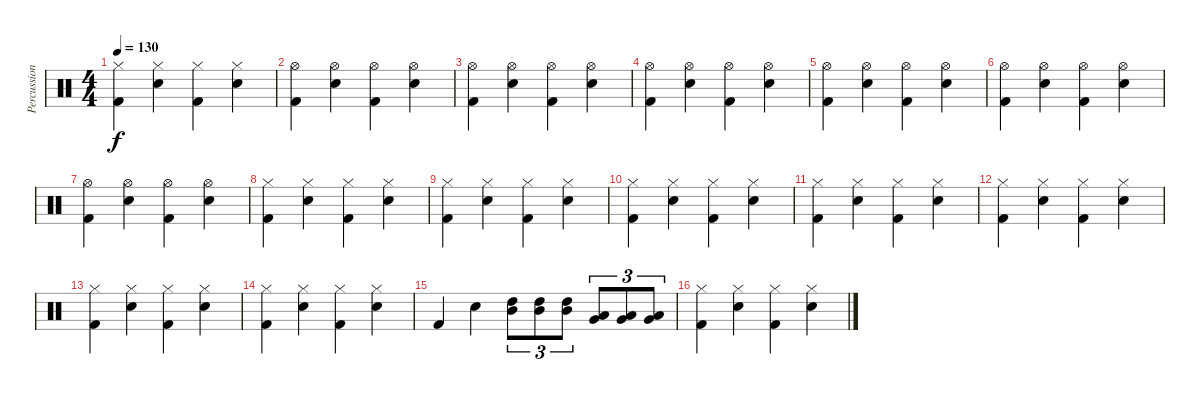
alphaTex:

\track ("Percussion" "Percussion") {instrument percussion bank 177}
\staff {score}
\articulation defaults
\ts (4 4)
\tempo 130
\clef neutral
\ks c
("Hi-Hat (closed)" "Kick (hit) 2").4{dy f} ("Hi-Hat (closed)" "Snare (hit) 2").4 ("Hi-Hat (closed)" "Kick (hit) 2").4 ("Hi-Hat (closed)" "Snare (hit) 2").4 |
("Hi-Hat (open)" "Kick (hit) 2").4 ("Hi-Hat (open)" "Snare (hit) 2").4 ("Hi-Hat (open)" "Kick (hit) 2").4 ("Hi-Hat (open)" "Snare (hit) 2").4 |
("Hi-Hat (open)" "Kick (hit) 2").4 ("Hi-Hat (open)" "Snare (hit) 2").4 ("Hi-Hat (open)" "Kick (hit) 2").4 ("Hi-Hat (open)" "Snare (hit) 2").4 |
("Hi-Hat (open)" "Kick (hit) 2").4 ("Hi-Hat (open)" "Snare (hit) 2").4 ("Hi-Hat (open)" "Kick (hit) 2").4 ("Hi-Hat (open)" "Snare (hit) 2").4 |
("Hi-Hat (open)" "Kick (hit) 2").4 ("Hi-Hat (open)" "Snare (hit) 2").4 ("Hi-Hat (open)" "Kick (hit) 2").4 ("Hi-Hat (open)" "Snare (hit) 2").4 |
("Hi-Hat (open)" "Kick (hit) 2").4 ("Hi-Hat (open)" "Snare (hit) 2").4 ("Hi-Hat (open)" "Kick (hit) 2").4 ("Hi-Hat (open)" "Snare (hit) 2").4 |
("Hi-Hat (open)" "Kick (hit) 2").4 ("Hi-Hat (open)" "Snare (hit) 2").4 ("Hi-Hat (open)" "Kick (hit) 2").4 ("Hi-Hat (open)" "Snare (hit) 2").4 |
("Hi-Hat (closed)" "Kick (hit) 2").4 ("Hi-Hat (closed)" "Snare (hit) 2").4 ("Hi-Hat (closed)" "Kick (hit) 2").4 ("Hi-Hat (closed)" "Snare (hit) 2").4 |
("Hi-Hat (closed)" "Kick (hit) 2").4 ("Hi-Hat (closed)" "Snare (hit) 2").4 ("Hi-Hat (closed)" "Kick (hit) 2").4 ("Hi-Hat (closed)" "Snare (hit) 2").4 |
("Hi-Hat (closed)" "Kick (hit) 2").4 ("Hi-Hat (closed)" "Snare (hit) 2").4 ("Hi-Hat (closed)" "Kick (hit) 2").4 ("Hi-Hat (closed)" "Snare (hit) 2").4 |
("Hi-Hat (closed)" "Kick (hit) 2").4 ("Hi-Hat (closed)" "Snare (hit) 2").4 ("Hi-Hat (closed)" "Kick (hit) 2").4 ("Hi-Hat (closed)" "Snare (hit) 2").4 |
("Hi-Hat (closed)" "Kick (hit) 2").4 ("Hi-Hat (closed)" "Snare (hit) 2").4 ("Hi-Hat (closed)" "Kick (hit) 2").4 ("Hi-Hat (closed)" "Snare (hit) 2").4 |
("Hi-Hat (closed)" "Kick (hit) 2").4 ("Hi-Hat (closed)" "Snare (hit) 2").4 ("Hi-Hat (closed)" "Kick (hit) 2").4 ("Hi-Hat (closed)" "Snare (hit) 2").4 |
("Hi-Hat (closed)" "Kick (hit) 2").4 ("Hi-Hat (closed)" "Snare (hit) 2").4 ("Hi-Hat (closed)" "Kick (hit) 2").4 ("Hi-Hat (closed)" "Snare (hit) 2").4 |
"Kick (hit) 2".4 "Snare (hit) 2".4 ("High Tom (hit)" "Mid Tom (hit)").8{tu (3 2)} ("High Tom (hit)" "Mid Tom (hit)").8{tu (3 2)} ("High Tom (hit)" "Mid Tom (hit)").8{tu (3 2)} ("Low Tom (hit)" "Very Low Tom (hit)").8{tu (3 2)} ("Low Tom (hit)" "Very Low Tom (hit)").8{tu (3 2)} ("Low Tom (hit)" "Very Low Tom (hit)").8{tu (3 2)} |
("Hi-Hat (closed)" "Kick (hit) 2").4 ("Hi-Hat (closed)" "Snare (hit) 2").4 ("Hi-Hat (closed)" "Kick (hit) 2").4 ("Hi-Hat (closed)" "Snare (hit) 2").4
